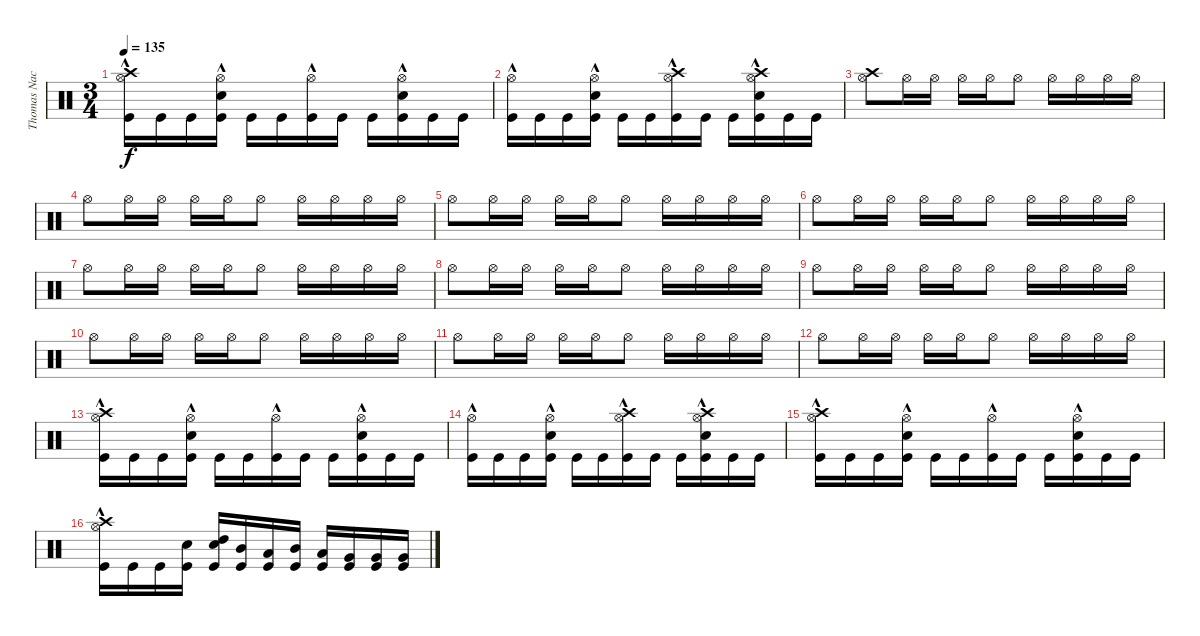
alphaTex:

\track ("Thomas Nack" "Thomas Nac") {instrument percussion}
\staff {score}
\articulation defaults
\ts (3 4)
\tempo 135
\clef neutral
\ks c
("Crash high (hit)" "Hi-Hat (open)"{hac} "Kick (hit)").16{dy f} "Kick (hit)".16 "Kick (hit)".16 ("Hi-Hat (open)"{hac} "Kick (hit)" "Electric Snare (hit)").16 "Kick (hit)".16 "Kick (hit)".16 ("Hi-Hat (open)"{hac} "Kick (hit)").16 "Kick (hit)".16 "Kick (hit)".16 ("Hi-Hat (open)"{hac} "Kick (hit)" "Electric Snare (hit)").16 "Kick (hit)".16 "Kick (hit)".16 |
("Hi-Hat (open)"{hac} "Kick (hit)").16 "Kick (hit)".16 "Kick (hit)".16 ("Hi-Hat (open)"{hac} "Kick (hit)" "Electric Snare (hit)").16 "Kick (hit)".16 "Kick (hit)".16 ("Crash high (hit)" "Hi-Hat (open)"{hac} "Kick (hit)").16 "Kick (hit)".16 "Kick (hit)".16 ("Crash high (hit)"{hac} "Hi-Hat (open)"{hac} "Kick (hit)" "Electric Snare (hit)").16 "Kick (hit)".16 "Kick (hit)".16 |
("Crash high (hit)" "Hi-Hat (open)").8 "Hi-Hat (open)".16 "Hi-Hat (open)".16 "Hi-Hat (open)".16 "Hi-Hat (open)".16 "Hi-Hat (open)".8 "Hi-Hat (open)".16 "Hi-Hat (open)".16 "Hi-Hat (open)".16 "Hi-Hat (open)".16 |
"Hi-Hat (open)".8 "Hi-Hat (open)".16 "Hi-Hat (open)".16 "Hi-Hat (open)".16 "Hi-Hat (open)".16 "Hi-Hat (open)".8 "Hi-Hat (open)".16 "Hi-Hat (open)".16 "Hi-Hat (open)".16 "Hi-Hat (open)".16 |
"Hi-Hat (open)".8 "Hi-Hat (open)".16 "Hi-Hat (open)".16 "Hi-Hat (open)".16 "Hi-Hat (open)".16 "Hi-Hat (open)".8 "Hi-Hat (open)".16 "Hi-Hat (open)".16 "Hi-Hat (open)".16 "Hi-Hat (open)".16 |
"Hi-Hat (open)".8 "Hi-Hat (open)".16 "Hi-Hat (open)".16 "Hi-Hat (open)".16 "Hi-Hat (open)".16 "Hi-Hat (open)".8 "Hi-Hat (open)".16 "Hi-Hat (open)".16 "Hi-Hat (open)".16 "Hi-Hat (open)".16 |
"Hi-Hat (open)".8 "Hi-Hat (open)".16 "Hi-Hat (open)".16 "Hi-Hat (open)".16 "Hi-Hat (open)".16 "Hi-Hat (open)".8 "Hi-Hat (open)".16 "Hi-Hat (open)".16 "Hi-Hat (open)".16 "Hi-Hat (open)".16 |
"Hi-Hat (open)".8 "Hi-Hat (open)".16 "Hi-Hat (open)".16 "Hi-Hat (open)".16 "Hi-Hat (open)".16 "Hi-Hat (open)".8 "Hi-Hat (open)".16 "Hi-Hat (open)".16 "Hi-Hat (open)".16 "Hi-Hat (open)".16 |
"Hi-Hat (open)".8 "Hi-Hat (open)".16 "Hi-Hat (open)".16 "Hi-Hat (open)".16 "Hi-Hat (open)".16 "Hi-Hat (open)".8 "Hi-Hat (open)".16 "Hi-Hat (open)".16 "Hi-Hat (open)".16 "Hi-Hat (open)".16 |
"Hi-Hat (open)".8 "Hi-Hat (open)".16 "Hi-Hat (open)".16 "Hi-Hat (open)".16 "Hi-Hat (open)".16 "Hi-Hat (open)".8 "Hi-Hat (open)".16 "Hi-Hat (open)".16 "Hi-Hat (open)".16 "Hi-Hat (open)".16 |
"Hi-Hat (open)".8 "Hi-Hat (open)".16 "Hi-Hat (open)".16 "Hi-Hat (open)".16 "Hi-Hat (open)".16 "Hi-Hat (open)".8 "Hi-Hat (open)".16 "Hi-Hat (open)".16 "Hi-Hat (open)".16 "Hi-Hat (open)".16 |
"Hi-Hat (open)".8 "Hi-Hat (open)".16 "Hi-Hat (open)".16 "Hi-Hat (open)".16 "Hi-Hat (open)".16 "Hi-Hat (open)".8 "Hi-Hat (open)".16 "Hi-Hat (open)".16 "Hi-Hat (open)".16 "Hi-Hat (open)".16 |
("Crash high (hit)" "Hi-Hat (open)"{hac} "Kick (hit)").16 "Kick (hit)".16 "Kick (hit)".16 ("Hi-Hat (open)"{hac} "Kick (hit)" "Electric Snare (hit)").16 "Kick (hit)".16 "Kick (hit)".16 ("Hi-Hat (open)"{hac} "Kick (hit)").16 "Kick (hit)".16 "Kick (hit)".16 ("Hi-Hat (open)"{hac} "Kick (hit)" "Electric Snare (hit)").16 "Kick (hit)".16 "Kick (hit)".16 |
("Hi-Hat (open)"{hac} "Kick (hit)").16 "Kick (hit)".16 "Kick (hit)".16 ("Hi-Hat (open)"{hac} "Kick (hit)" "Electric Snare (hit)").16 "Kick (hit)".16 "Kick (hit)".16 ("Crash high (hit)" "Hi-Hat (open)"{hac} "Kick (hit)").16 "Kick (hit)".16 "Kick (hit)".16 ("Crash high (hit)" "Hi-Hat (open)"{hac} "Kick (hit)" "Electric Snare (hit)").16 "Kick (hit)".16 "Kick (hit)".16 |
("Crash high (hit)" "Hi-Hat (open)"{hac} "Kick (hit)").16 "Kick (hit)".16 "Kick (hit)".16 ("Hi-Hat (open)"{hac} "Kick (hit)" "Electric Snare (hit)").16 "Kick (hit)".16 "Kick (hit)".16 ("Hi-Hat (open)"{hac} "Kick (hit)").16 "Kick (hit)".16 "Kick (hit)".16 ("Hi-Hat (open)"{hac} "Kick (hit)" "Electric Snare (hit)").16 "Kick (hit)".16 "Kick (hit)".16 |
("Crash high (hit)" "Hi-Hat (open)"{hac} "Kick (hit)").16 "Kick (hit)".16 "Kick (hit)".16 ("Electric Snare (hit)" "Kick (hit)").16 ("Electric Snare (hit)" "High Tom (hit)" "Kick (hit)").16 ("Mid Tom (hit)" "Kick (hit)").16 ("Low Tom (hit)" "Kick (hit)").16 ("Mid Tom (hit)" "Kick (hit)").16 ("Low Tom (hit)" "Kick (hit)").16 ("Very Low Tom (hit)" "Kick (hit)").16 ("Very Low Tom (hit)" "Kick (hit)").16 ("Very Low Tom (hit)" "Kick (hit)").16
